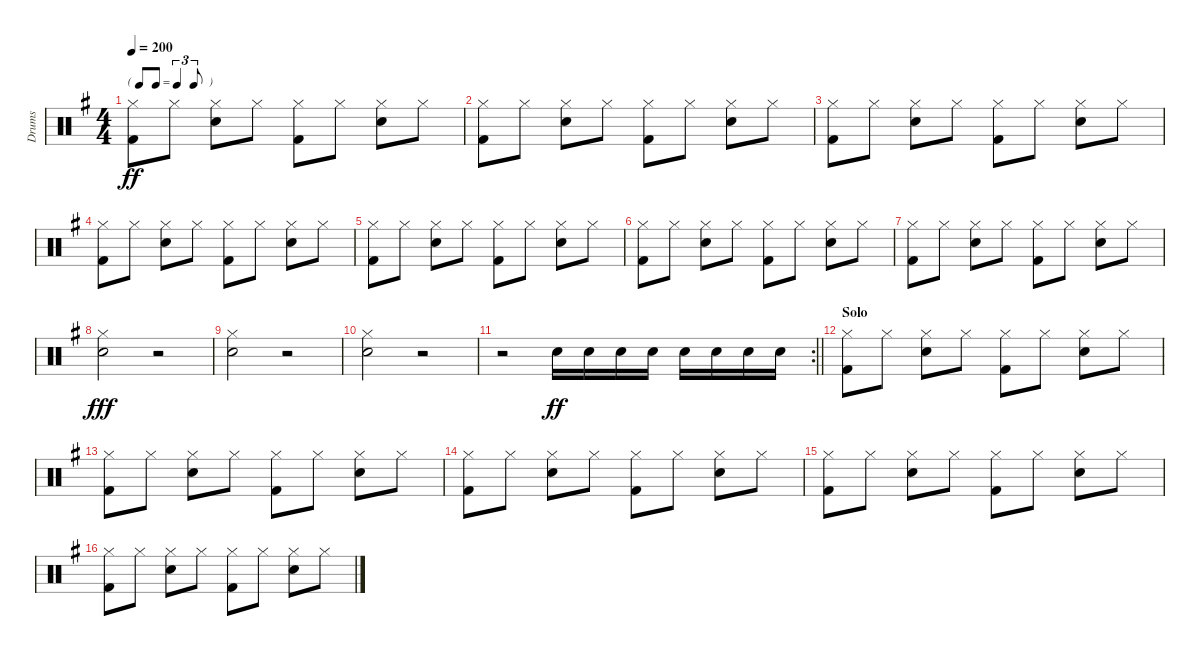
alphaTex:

\track ("Drums" "Drums") {instrument percussion}
\staff {score}
\articulation defaults
\ts (4 4)
\tf triplet8th
\tempo 200
\clef neutral
\ks g
("Hi-Hat (closed)" "Kick (hit) 2").8{dy ff} "Hi-Hat (closed)".8 ("Hi-Hat (closed)" "Snare (hit) 2").8 "Hi-Hat (closed)".8 ("Hi-Hat (closed)" "Kick (hit) 2").8 "Hi-Hat (closed)".8 ("Hi-Hat (closed)" "Snare (hit) 2").8 "Hi-Hat (closed)".8 |
("Hi-Hat (closed)" "Kick (hit) 2").8 "Hi-Hat (closed)".8 ("Hi-Hat (closed)" "Snare (hit) 2").8 "Hi-Hat (closed)".8 ("Hi-Hat (closed)" "Kick (hit) 2").8 "Hi-Hat (closed)".8 ("Hi-Hat (closed)" "Snare (hit) 2").8 "Hi-Hat (closed)".8 |
("Hi-Hat (closed)" "Kick (hit) 2").8 "Hi-Hat (closed)".8 ("Hi-Hat (closed)" "Snare (hit) 2").8 "Hi-Hat (closed)".8 ("Hi-Hat (closed)" "Kick (hit) 2").8 "Hi-Hat (closed)".8 ("Hi-Hat (closed)" "Snare (hit) 2").8 "Hi-Hat (closed)".8 |
("Hi-Hat (closed)" "Kick (hit) 2").8 "Hi-Hat (closed)".8 ("Hi-Hat (closed)" "Snare (hit) 2").8 "Hi-Hat (closed)".8 ("Hi-Hat (closed)" "Kick (hit) 2").8 "Hi-Hat (closed)".8 ("Hi-Hat (closed)" "Snare (hit) 2").8 "Hi-Hat (closed)".8 |
("Hi-Hat (closed)" "Kick (hit) 2").8 "Hi-Hat (closed)".8 ("Hi-Hat (closed)" "Snare (hit) 2").8 "Hi-Hat (closed)".8 ("Hi-Hat (closed)" "Kick (hit) 2").8 "Hi-Hat (closed)".8 ("Hi-Hat (closed)" "Snare (hit) 2").8 "Hi-Hat (closed)".8 |
("Hi-Hat (closed)" "Kick (hit) 2").8 "Hi-Hat (closed)".8 ("Hi-Hat (closed)" "Snare (hit) 2").8 "Hi-Hat (closed)".8 ("Hi-Hat (closed)" "Kick (hit) 2").8 "Hi-Hat (closed)".8 ("Hi-Hat (closed)" "Snare (hit) 2").8 "Hi-Hat (closed)".8 |
("Hi-Hat (closed)" "Kick (hit) 2").8 "Hi-Hat (closed)".8 ("Hi-Hat (closed)" "Snare (hit) 2").8 "Hi-Hat (closed)".8 ("Hi-Hat (closed)" "Kick (hit) 2").8 "Hi-Hat (closed)".8 ("Hi-Hat (closed)" "Snare (hit) 2").8 "Hi-Hat (closed)".8 |
("Snare (hit) 2" "Hi-Hat (closed)").2{dy fff} r.2 |
("Snare (hit) 2" "Hi-Hat (closed)").2 r.2 |
("Snare (hit) 2" "Hi-Hat (closed)").2 r.2 |
\rc 2
\barLineRight lightlight
r.2 "Snare (hit) 2".16{dy ff} "Snare (hit) 2".16 "Snare (hit) 2".16 "Snare (hit) 2".16 "Snare (hit) 2".16 "Snare (hit) 2".16 "Snare (hit) 2".16 "Snare (hit) 2".16 |
\section ("" "Solo")
("Hi-Hat (closed)" "Kick (hit) 2").8 "Hi-Hat (closed)".8 ("Hi-Hat (closed)" "Snare (hit) 2").8 "Hi-Hat (closed)".8 ("Hi-Hat (closed)" "Kick (hit) 2").8 "Hi-Hat (closed)".8 ("Hi-Hat (closed)" "Snare (hit) 2").8 "Hi-Hat (closed)".8 |
("Hi-Hat (closed)" "Kick (hit) 2").8 "Hi-Hat (closed)".8 ("Hi-Hat (closed)" "Snare (hit) 2").8 "Hi-Hat (closed)".8 ("Hi-Hat (closed)" "Kick (hit) 2").8 "Hi-Hat (closed)".8 ("Hi-Hat (closed)" "Snare (hit) 2").8 "Hi-Hat (closed)".8 |
("Hi-Hat (closed)" "Kick (hit) 2").8 "Hi-Hat (closed)".8 ("Hi-Hat (closed)" "Snare (hit) 2").8 "Hi-Hat (closed)".8 ("Hi-Hat (closed)" "Kick (hit) 2").8 "Hi-Hat (closed)".8 ("Hi-Hat (closed)" "Snare (hit) 2").8 "Hi-Hat (closed)".8 |
("Hi-Hat (closed)" "Kick (hit) 2").8 "Hi-Hat (closed)".8 ("Hi-Hat (closed)" "Snare (hit) 2").8 "Hi-Hat (closed)".8 ("Hi-Hat (closed)" "Kick (hit) 2").8 "Hi-Hat (closed)".8 ("Hi-Hat (closed)" "Snare (hit) 2").8 "Hi-Hat (closed)".8 |
("Hi-Hat (closed)" "Kick (hit) 2").8 "Hi-Hat (closed)".8 ("Hi-Hat (closed)" "Snare (hit) 2").8 "Hi-Hat (closed)".8 ("Hi-Hat (closed)" "Kick (hit) 2").8 "Hi-Hat (closed)".8 ("Hi-Hat (closed)" "Snare (hit) 2").8 "Hi-Hat (closed)".8
